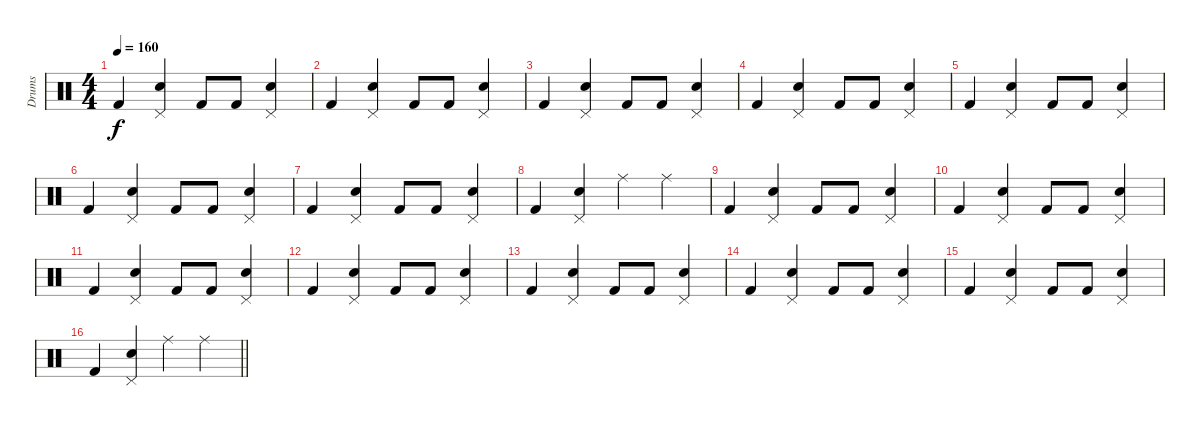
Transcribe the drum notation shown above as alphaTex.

\track ("Drums" "Drums") {instrument percussion}
\staff {score}
\articulation defaults
\ts (4 4)
\tempo 160
\clef neutral
\ks c "Kick (hit) 2".4{dy f}
("Pedal Hi-Hat (hit)" "Electric Snare (hit)").4 "Kick (hit) 2".8 "Kick (hit) 2".8 ("Pedal Hi-Hat (hit)" "Electric Snare (hit)").4 |
"Kick (hit) 2".4 ("Pedal Hi-Hat (hit)" "Electric Snare (hit)").4 "Kick (hit) 2".8 "Kick (hit) 2".8 ("Pedal Hi-Hat (hit)" "Electric Snare (hit)").4 |
"Kick (hit) 2".4 ("Pedal Hi-Hat (hit)" "Electric Snare (hit)").4 "Kick (hit) 2".8 "Kick (hit) 2".8 ("Pedal Hi-Hat (hit)" "Electric Snare (hit)").4 |
"Kick (hit) 2".4 ("Pedal Hi-Hat (hit)" "Electric Snare (hit)").4 "Kick (hit) 2".8 "Kick (hit) 2".8 ("Pedal Hi-Hat (hit)" "Electric Snare (hit)").4 |
"Kick (hit) 2".4 ("Pedal Hi-Hat (hit)" "Electric Snare (hit)").4 "Kick (hit) 2".8 "Kick (hit) 2".8 ("Pedal Hi-Hat (hit)" "Electric Snare (hit)").4 |
"Kick (hit) 2".4 ("Pedal Hi-Hat (hit)" "Electric Snare (hit)").4 "Kick (hit) 2".8 "Kick (hit) 2".8 ("Pedal Hi-Hat (hit)" "Electric Snare (hit)").4 |
"Kick (hit) 2".4 ("Pedal Hi-Hat (hit)" "Electric Snare (hit)").4 "Kick (hit) 2".8 "Kick (hit) 2".8 ("Pedal Hi-Hat (hit)" "Electric Snare (hit)").4 |
"Kick (hit) 2".4 ("Pedal Hi-Hat (hit)" "Electric Snare (hit)").4 "Ride (middle)".4 "Ride (middle)".4 |
"Kick (hit) 2".4 ("Pedal Hi-Hat (hit)" "Electric Snare (hit)").4 "Kick (hit) 2".8 "Kick (hit) 2".8 ("Pedal Hi-Hat (hit)" "Electric Snare (hit)").4 |
"Kick (hit) 2".4 ("Pedal Hi-Hat (hit)" "Electric Snare (hit)").4 "Kick (hit) 2".8 "Kick (hit) 2".8 ("Pedal Hi-Hat (hit)" "Electric Snare (hit)").4 |
"Kick (hit) 2".4 ("Pedal Hi-Hat (hit)" "Electric Snare (hit)").4 "Kick (hit) 2".8 "Kick (hit) 2".8 ("Pedal Hi-Hat (hit)" "Electric Snare (hit)").4 |
"Kick (hit) 2".4 ("Pedal Hi-Hat (hit)" "Electric Snare (hit)").4 "Kick (hit) 2".8 "Kick (hit) 2".8 ("Pedal Hi-Hat (hit)" "Electric Snare (hit)").4 |
"Kick (hit) 2".4 ("Pedal Hi-Hat (hit)" "Electric Snare (hit)").4 "Kick (hit) 2".8 "Kick (hit) 2".8 ("Pedal Hi-Hat (hit)" "Electric Snare (hit)").4 |
"Kick (hit) 2".4 ("Pedal Hi-Hat (hit)" "Electric Snare (hit)").4 "Kick (hit) 2".8 "Kick (hit) 2".8 ("Pedal Hi-Hat (hit)" "Electric Snare (hit)").4 |
"Kick (hit) 2".4 ("Pedal Hi-Hat (hit)" "Electric Snare (hit)").4 "Kick (hit) 2".8 "Kick (hit) 2".8 ("Pedal Hi-Hat (hit)" "Electric Snare (hit)").4 |
\barLineRight lightlight "Kick (hit) 2".4
("Pedal Hi-Hat (hit)" "Electric Snare (hit)").4 "Ride (middle)".4 "Ride (middle)".4
